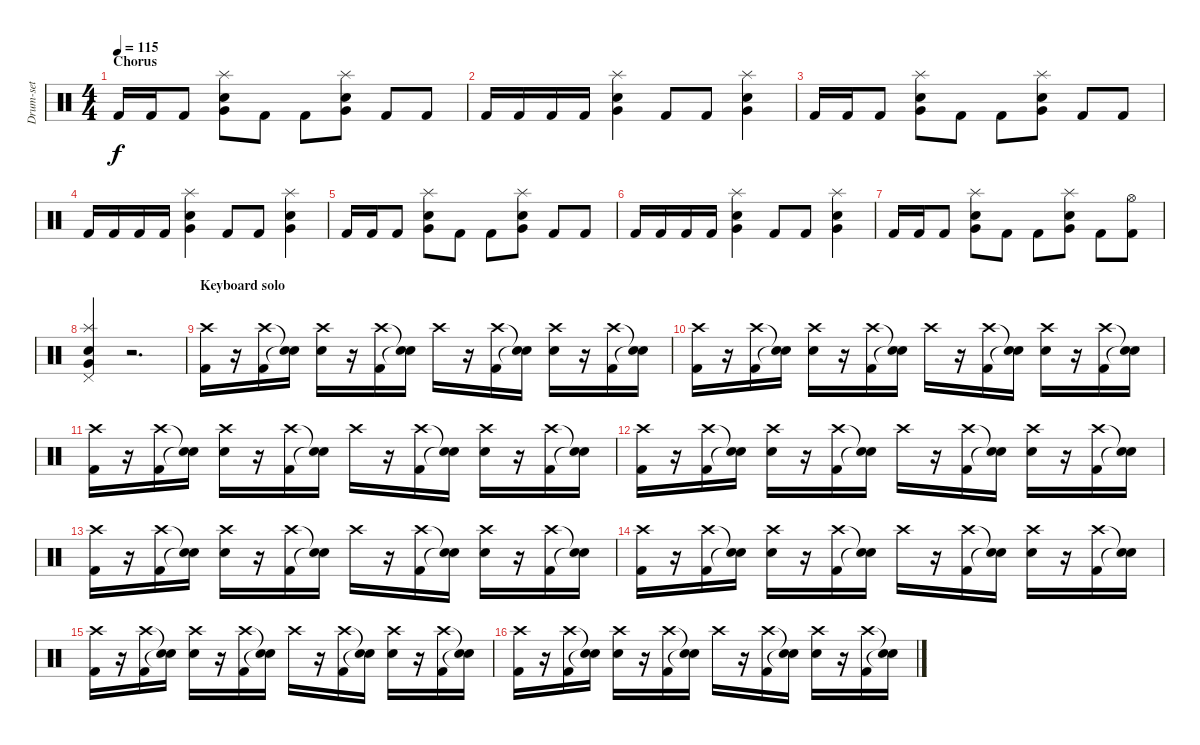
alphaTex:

\track ("Drum-set" "Drum-set") {instrument percussion}
\staff {score}
\articulation defaults
\ts (4 4)
\section ("" "Chorus")
\tempo 115
\clef neutral
\ks c "Kick (hit) 2".16{dy f} "Kick (hit) 2".16 "Kick (hit) 2".8
("Very Low Tom (hit)" "Snare (hit) 2" "Splash (hit)").8 "Kick (hit) 2".8 "Kick (hit) 2".8 ("Very Low Tom (hit)" "Snare (hit) 2" "Splash (hit)").8 "Kick (hit) 2".8 "Kick (hit) 2".8 |
"Kick (hit) 2".16 "Kick (hit) 2".16 "Kick (hit) 2".16 "Kick (hit) 2".16 ("Very Low Tom (hit)" "Snare (hit) 2" "Splash (hit)").4 "Kick (hit) 2".8 "Kick (hit) 2".8 ("Very Low Tom (hit)" "Snare (hit) 2" "Splash (hit)").4 |
"Kick (hit) 2".16 "Kick (hit) 2".16 "Kick (hit) 2".8 ("Very Low Tom (hit)" "Snare (hit) 2" "Splash (hit)").8 "Kick (hit) 2".8 "Kick (hit) 2".8 ("Very Low Tom (hit)" "Snare (hit) 2" "Splash (hit)").8 "Kick (hit) 2".8 "Kick (hit) 2".8 |
"Kick (hit) 2".16 "Kick (hit) 2".16 "Kick (hit) 2".16 "Kick (hit) 2".16 ("Very Low Tom (hit)" "Snare (hit) 2" "Splash (hit)").4 "Kick (hit) 2".8 "Kick (hit) 2".8 ("Very Low Tom (hit)" "Snare (hit) 2" "Splash (hit)").4 |
"Kick (hit) 2".16 "Kick (hit) 2".16 "Kick (hit) 2".8 ("Very Low Tom (hit)" "Snare (hit) 2" "Splash (hit)").8 "Kick (hit) 2".8 "Kick (hit) 2".8 ("Very Low Tom (hit)" "Snare (hit) 2" "Splash (hit)").8 "Kick (hit) 2".8 "Kick (hit) 2".8 |
"Kick (hit) 2".16 "Kick (hit) 2".16 "Kick (hit) 2".16 "Kick (hit) 2".16 ("Very Low Tom (hit)" "Snare (hit) 2" "Splash (hit)").4 "Kick (hit) 2".8 "Kick (hit) 2".8 ("Very Low Tom (hit)" "Snare (hit) 2" "Splash (hit)").4 |
"Kick (hit) 2".16 "Kick (hit) 2".16 "Kick (hit) 2".8 ("Very Low Tom (hit)" "Snare (hit) 2" "Splash (hit)").8 "Kick (hit) 2".8 "Kick (hit) 2".8 ("Very Low Tom (hit)" "Snare (hit) 2" "Splash (hit)").8 "Kick (hit) 2".8 ("Kick (hit) 2" "Hi-Hat (open)").8 |
("Very Low Tom (hit)" "Snare (hit) 2" "Splash (hit)" "Pedal Hi-Hat (hit)").4 r.2{d} |
\section ("" "Keyboard solo")
("Crash high (hit)" "Kick (hit) 2").16 r.16 ("Crash high (hit)" "Kick (hit) 2").16 ("Snare (hit)"{t} "Snare (hit)"{t}).16 ("Crash high (hit)" "Electric Snare (hit)").16 r.16 ("Crash high (hit)" "Kick (hit) 2").16 ("Snare (hit)"{t} "Snare (hit)"{t}).16 "Crash high (hit)".16 r.16 ("Crash high (hit)" "Kick (hit) 2").16 ("Snare (hit)"{t} "Snare (hit)"{t}).16 ("Crash high (hit)" "Electric Snare (hit)").16 r.16 ("Crash high (hit)" "Kick (hit) 2").16 ("Snare (hit)"{t} "Snare (hit)"{t}).16 |
("Crash high (hit)" "Kick (hit) 2").16 r.16 ("Crash high (hit)" "Kick (hit) 2").16 ("Snare (hit)"{t} "Snare (hit)"{t}).16 ("Crash high (hit)" "Electric Snare (hit)").16 r.16 ("Crash high (hit)" "Kick (hit) 2").16 ("Snare (hit)"{t} "Snare (hit)"{t}).16 "Crash high (hit)".16 r.16 ("Crash high (hit)" "Kick (hit) 2").16 ("Snare (hit)"{t} "Snare (hit)"{t}).16 ("Crash high (hit)" "Electric Snare (hit)").16 r.16 ("Crash high (hit)" "Kick (hit) 2").16 ("Snare (hit)"{t} "Snare (hit)"{t}).16 |
("Crash high (hit)" "Kick (hit) 2").16 r.16 ("Crash high (hit)" "Kick (hit) 2").16 ("Snare (hit)"{t} "Snare (hit)"{t}).16 ("Crash high (hit)" "Electric Snare (hit)").16 r.16 ("Crash high (hit)" "Kick (hit) 2").16 ("Snare (hit)"{t} "Snare (hit)"{t}).16 "Crash high (hit)".16 r.16 ("Crash high (hit)" "Kick (hit) 2").16 ("Snare (hit)"{t} "Snare (hit)"{t}).16 ("Crash high (hit)" "Electric Snare (hit)").16 r.16 ("Crash high (hit)" "Kick (hit) 2").16 ("Snare (hit)"{t} "Snare (hit)"{t}).16 |
("Crash high (hit)" "Kick (hit) 2").16 r.16 ("Crash high (hit)" "Kick (hit) 2").16 ("Snare (hit)"{t} "Snare (hit)"{t}).16 ("Crash high (hit)" "Electric Snare (hit)").16 r.16 ("Crash high (hit)" "Kick (hit) 2").16 ("Snare (hit)"{t} "Snare (hit)"{t}).16 "Crash high (hit)".16 r.16 ("Crash high (hit)" "Kick (hit) 2").16 ("Snare (hit)"{t} "Snare (hit)"{t}).16 ("Crash high (hit)" "Electric Snare (hit)").16 r.16 ("Crash high (hit)" "Kick (hit) 2").16 ("Snare (hit)"{t} "Snare (hit)"{t}).16 |
("Crash high (hit)" "Kick (hit) 2").16 r.16 ("Crash high (hit)" "Kick (hit) 2").16 ("Snare (hit)"{t} "Snare (hit)"{t}).16 ("Crash high (hit)" "Electric Snare (hit)").16 r.16 ("Crash high (hit)" "Kick (hit) 2").16 ("Snare (hit)"{t} "Snare (hit)"{t}).16 "Crash high (hit)".16 r.16 ("Crash high (hit)" "Kick (hit) 2").16 ("Snare (hit)"{t} "Snare (hit)"{t}).16 ("Crash high (hit)" "Electric Snare (hit)").16 r.16 ("Crash high (hit)" "Kick (hit) 2").16 ("Snare (hit)"{t} "Snare (hit)"{t}).16 |
("Crash high (hit)" "Kick (hit) 2").16 r.16 ("Crash high (hit)" "Kick (hit) 2").16 ("Snare (hit)"{t} "Snare (hit)"{t}).16 ("Crash high (hit)" "Electric Snare (hit)").16 r.16 ("Crash high (hit)" "Kick (hit) 2").16 ("Snare (hit)"{t} "Snare (hit)"{t}).16 "Crash high (hit)".16 r.16 ("Crash high (hit)" "Kick (hit) 2").16 ("Snare (hit)"{t} "Snare (hit)"{t}).16 ("Crash high (hit)" "Electric Snare (hit)").16 r.16 ("Crash high (hit)" "Kick (hit) 2").16 ("Snare (hit)"{t} "Snare (hit)"{t}).16 |
("Crash high (hit)" "Kick (hit) 2").16 r.16 ("Crash high (hit)" "Kick (hit) 2").16 ("Snare (hit)"{t} "Snare (hit)"{t}).16 ("Crash high (hit)" "Electric Snare (hit)").16 r.16 ("Crash high (hit)" "Kick (hit) 2").16 ("Snare (hit)"{t} "Snare (hit)"{t}).16 "Crash high (hit)".16 r.16 ("Crash high (hit)" "Kick (hit) 2").16 ("Snare (hit)"{t} "Snare (hit)"{t}).16 ("Crash high (hit)" "Electric Snare (hit)").16 r.16 ("Crash high (hit)" "Kick (hit) 2").16 ("Snare (hit)"{t} "Snare (hit)"{t}).16 |
("Crash high (hit)" "Kick (hit) 2").16 r.16 ("Crash high (hit)" "Kick (hit) 2").16 ("Snare (hit)"{t} "Snare (hit)"{t}).16 ("Crash high (hit)" "Electric Snare (hit)").16 r.16 ("Crash high (hit)" "Kick (hit) 2").16 ("Snare (hit)"{t} "Snare (hit)"{t}).16 "Crash high (hit)".16 r.16 ("Crash high (hit)" "Kick (hit) 2").16 ("Snare (hit)"{t} "Snare (hit)"{t}).16 ("Crash high (hit)" "Electric Snare (hit)").16 r.16 ("Crash high (hit)" "Kick (hit) 2").16 ("Snare (hit)"{t} "Snare (hit)"{t}).16
